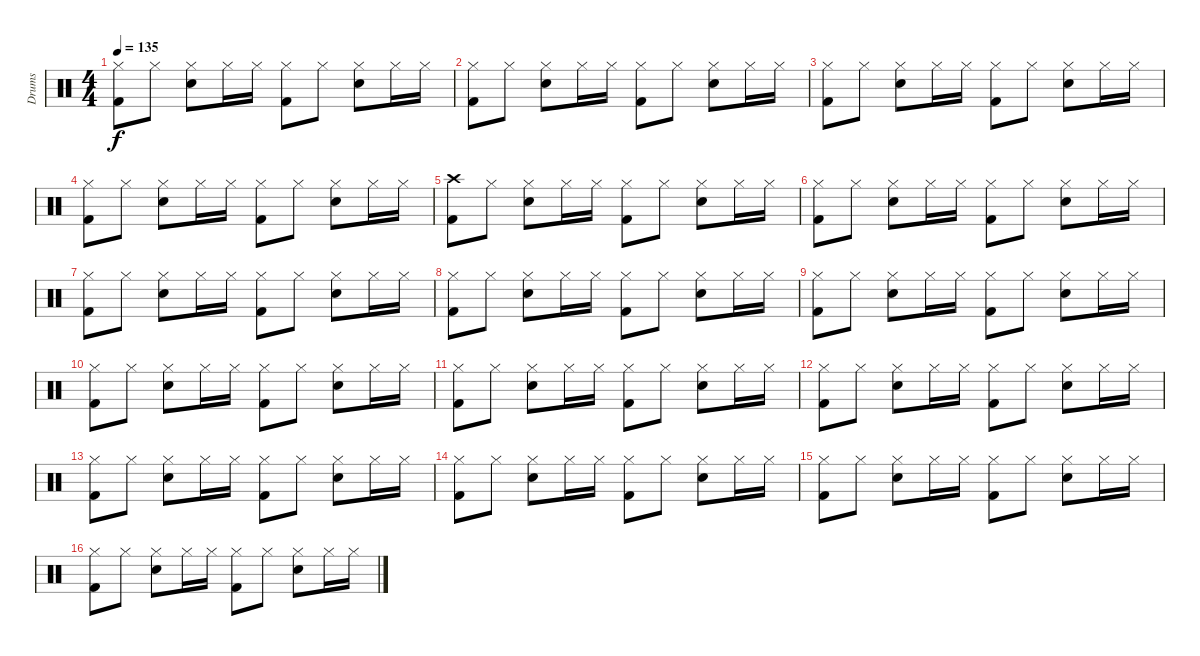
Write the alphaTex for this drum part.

\track ("Drums" "Drums") {instrument percussion}
\staff {score}
\articulation defaults
\ts (4 4)
\tempo 135
\clef neutral
\ks c
("Hi-Hat (closed)" "Kick (hit) 2").8{dy f} "Hi-Hat (closed)".8 ("Hi-Hat (closed)" "Snare (hit) 2").8 "Hi-Hat (closed)".16 "Hi-Hat (closed)".16 ("Hi-Hat (closed)" "Kick (hit) 2").8 "Hi-Hat (closed)".8 ("Hi-Hat (closed)" "Snare (hit) 2").8 "Hi-Hat (closed)".16 "Hi-Hat (closed)".16 |
("Hi-Hat (closed)" "Kick (hit) 2").8 "Hi-Hat (closed)".8 ("Hi-Hat (closed)" "Snare (hit) 2").8 "Hi-Hat (closed)".16 "Hi-Hat (closed)".16 ("Hi-Hat (closed)" "Kick (hit) 2").8 "Hi-Hat (closed)".8 ("Hi-Hat (closed)" "Snare (hit) 2").8 "Hi-Hat (closed)".16 "Hi-Hat (closed)".16 |
("Hi-Hat (closed)" "Kick (hit) 2").8 "Hi-Hat (closed)".8 ("Hi-Hat (closed)" "Snare (hit) 2").8 "Hi-Hat (closed)".16 "Hi-Hat (closed)".16 ("Hi-Hat (closed)" "Kick (hit) 2").8 "Hi-Hat (closed)".8 ("Hi-Hat (closed)" "Snare (hit) 2").8 "Hi-Hat (closed)".16 "Hi-Hat (closed)".16 |
("Hi-Hat (closed)" "Kick (hit) 2").8 "Hi-Hat (closed)".8 ("Hi-Hat (closed)" "Snare (hit) 2").8 "Hi-Hat (closed)".16 "Hi-Hat (closed)".16 ("Hi-Hat (closed)" "Kick (hit) 2").8 "Hi-Hat (closed)".8 ("Hi-Hat (closed)" "Snare (hit) 2").8 "Hi-Hat (closed)".16 "Hi-Hat (closed)".16 |
("Crash high (hit)" "Kick (hit) 2").8 "Hi-Hat (closed)".8 ("Hi-Hat (closed)" "Snare (hit) 2").8 "Hi-Hat (closed)".16 "Hi-Hat (closed)".16 ("Hi-Hat (closed)" "Kick (hit) 2").8 "Hi-Hat (closed)".8 ("Hi-Hat (closed)" "Snare (hit) 2").8 "Hi-Hat (closed)".16 "Hi-Hat (closed)".16 |
("Hi-Hat (closed)" "Kick (hit) 2").8 "Hi-Hat (closed)".8 ("Hi-Hat (closed)" "Snare (hit) 2").8 "Hi-Hat (closed)".16 "Hi-Hat (closed)".16 ("Hi-Hat (closed)" "Kick (hit) 2").8 "Hi-Hat (closed)".8 ("Hi-Hat (closed)" "Snare (hit) 2").8 "Hi-Hat (closed)".16 "Hi-Hat (closed)".16 |
("Hi-Hat (closed)" "Kick (hit) 2").8 "Hi-Hat (closed)".8 ("Hi-Hat (closed)" "Snare (hit) 2").8 "Hi-Hat (closed)".16 "Hi-Hat (closed)".16 ("Hi-Hat (closed)" "Kick (hit) 2").8 "Hi-Hat (closed)".8 ("Hi-Hat (closed)" "Snare (hit) 2").8 "Hi-Hat (closed)".16 "Hi-Hat (closed)".16 |
("Hi-Hat (closed)" "Kick (hit) 2").8 "Hi-Hat (closed)".8 ("Hi-Hat (closed)" "Snare (hit) 2").8 "Hi-Hat (closed)".16 "Hi-Hat (closed)".16 ("Hi-Hat (closed)" "Kick (hit) 2").8 "Hi-Hat (closed)".8 ("Hi-Hat (closed)" "Snare (hit) 2").8 "Hi-Hat (closed)".16 "Hi-Hat (closed)".16 |
("Hi-Hat (closed)" "Kick (hit) 2").8 "Hi-Hat (closed)".8 ("Hi-Hat (closed)" "Snare (hit) 2").8 "Hi-Hat (closed)".16 "Hi-Hat (closed)".16 ("Hi-Hat (closed)" "Kick (hit) 2").8 "Hi-Hat (closed)".8 ("Hi-Hat (closed)" "Snare (hit) 2").8 "Hi-Hat (closed)".16 "Hi-Hat (closed)".16 |
("Hi-Hat (closed)" "Kick (hit) 2").8 "Hi-Hat (closed)".8 ("Hi-Hat (closed)" "Snare (hit) 2").8 "Hi-Hat (closed)".16 "Hi-Hat (closed)".16 ("Hi-Hat (closed)" "Kick (hit) 2").8 "Hi-Hat (closed)".8 ("Hi-Hat (closed)" "Snare (hit) 2").8 "Hi-Hat (closed)".16 "Hi-Hat (closed)".16 |
("Hi-Hat (closed)" "Kick (hit) 2").8 "Hi-Hat (closed)".8 ("Hi-Hat (closed)" "Snare (hit) 2").8 "Hi-Hat (closed)".16 "Hi-Hat (closed)".16 ("Hi-Hat (closed)" "Kick (hit) 2").8 "Hi-Hat (closed)".8 ("Hi-Hat (closed)" "Snare (hit) 2").8 "Hi-Hat (closed)".16 "Hi-Hat (closed)".16 |
("Hi-Hat (closed)" "Kick (hit) 2").8 "Hi-Hat (closed)".8 ("Hi-Hat (closed)" "Snare (hit) 2").8 "Hi-Hat (closed)".16 "Hi-Hat (closed)".16 ("Hi-Hat (closed)" "Kick (hit) 2").8 "Hi-Hat (closed)".8 ("Hi-Hat (closed)" "Snare (hit) 2").8 "Hi-Hat (closed)".16 "Hi-Hat (closed)".16 |
("Hi-Hat (closed)" "Kick (hit) 2").8 "Hi-Hat (closed)".8 ("Hi-Hat (closed)" "Snare (hit) 2").8 "Hi-Hat (closed)".16 "Hi-Hat (closed)".16 ("Hi-Hat (closed)" "Kick (hit) 2").8 "Hi-Hat (closed)".8 ("Hi-Hat (closed)" "Snare (hit) 2").8 "Hi-Hat (closed)".16 "Hi-Hat (closed)".16 |
("Hi-Hat (closed)" "Kick (hit) 2").8 "Hi-Hat (closed)".8 ("Hi-Hat (closed)" "Snare (hit) 2").8 "Hi-Hat (closed)".16 "Hi-Hat (closed)".16 ("Hi-Hat (closed)" "Kick (hit) 2").8 "Hi-Hat (closed)".8 ("Hi-Hat (closed)" "Snare (hit) 2").8 "Hi-Hat (closed)".16 "Hi-Hat (closed)".16 |
("Hi-Hat (closed)" "Kick (hit) 2").8 "Hi-Hat (closed)".8 ("Hi-Hat (closed)" "Snare (hit) 2").8 "Hi-Hat (closed)".16 "Hi-Hat (closed)".16 ("Hi-Hat (closed)" "Kick (hit) 2").8 "Hi-Hat (closed)".8 ("Hi-Hat (closed)" "Snare (hit) 2").8 "Hi-Hat (closed)".16 "Hi-Hat (closed)".16 |
("Hi-Hat (closed)" "Kick (hit) 2").8 "Hi-Hat (closed)".8 ("Hi-Hat (closed)" "Snare (hit) 2").8 "Hi-Hat (closed)".16 "Hi-Hat (closed)".16 ("Hi-Hat (closed)" "Kick (hit) 2").8 "Hi-Hat (closed)".8 ("Hi-Hat (closed)" "Snare (hit) 2").8 "Hi-Hat (closed)".16 "Hi-Hat (closed)".16
